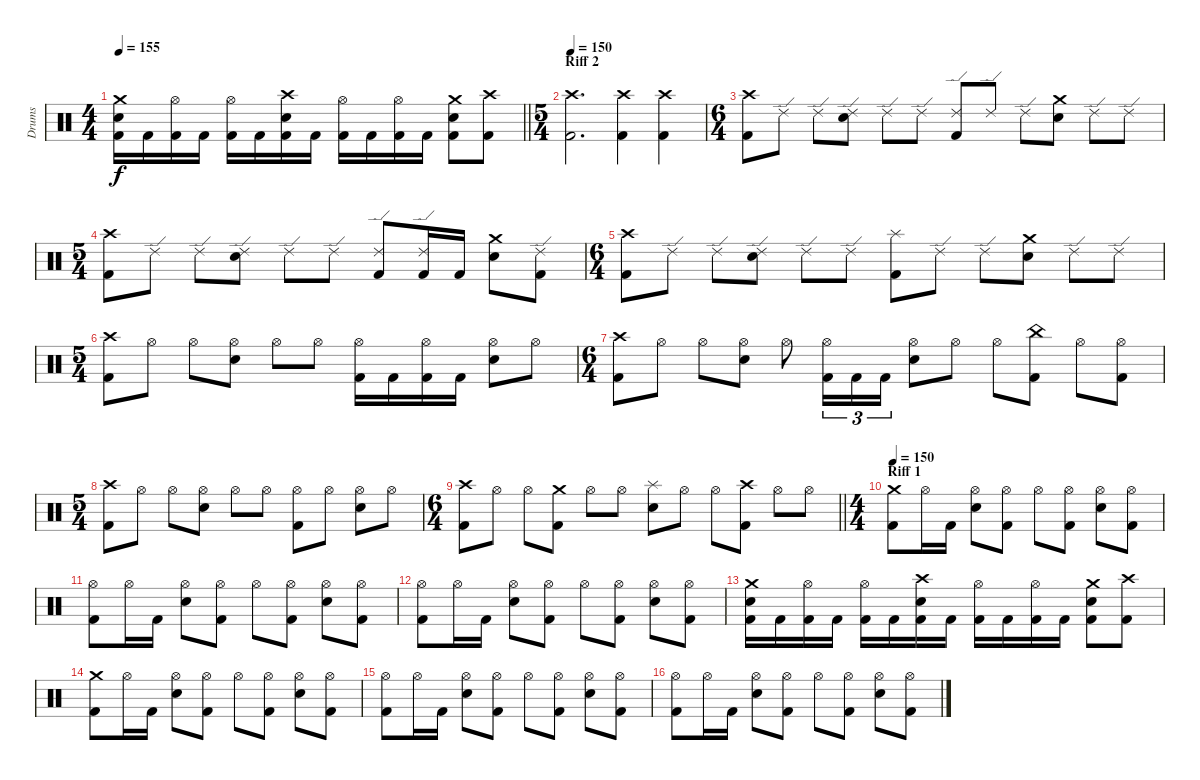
\track ("Drums" "Drums") {instrument percussion}
\staff {score}
\articulation defaults
\ts (4 4)
\tempo 155
\clef neutral
\barLineRight lightlight
\ks c
("Crash medium (hit)" "Electric Snare (hit)" "Kick (hit) 2").16{dy f} "Kick (hit) 2".16 ("Hi-Hat (open)" "Kick (hit) 2").16 "Kick (hit) 2".16 ("Hi-Hat (open)" "Kick (hit) 2").16 "Kick (hit) 2".16 ("Crash high (hit)" "Electric Snare (hit)" "Kick (hit) 2").16 "Kick (hit) 2".16 ("Hi-Hat (open)" "Kick (hit) 2").16 "Kick (hit) 2".16 ("Hi-Hat (open)" "Kick (hit) 2").16 "Kick (hit) 2".16 ("Crash medium (hit)" "Electric Snare (hit)" "Kick (hit) 2").8 ("Crash high (hit)" "Kick (hit) 2").8 |
\ts (5 4)
\section ("" "Riff 2")
\tempo 150
("Crash high (hit)" "Kick (hit) 2").2{d} ("Crash high (hit)" "Kick (hit) 2").4 ("Crash high (hit)" "Kick (hit) 2").4 |
\ts (6 4)
("Crash high (hit)" "Kick (hit) 2").8 "Ride (edge) 2".8 "Ride (edge) 2".8 ("Ride (edge) 2" "Electric Snare (hit)").8 "Ride (edge) 2".8 "Ride (edge) 2".8 ("Ride (edge) 2" "Kick (hit) 2").8 "Ride (edge) 2".8 "Ride (edge) 2".8 ("Crash medium (hit)" "Electric Snare (hit)").8 "Ride (edge) 2".8 "Ride (edge) 2".8 |
\ts (5 4)
("Crash high (hit)" "Kick (hit) 2").8 "Ride (edge) 2".8 "Ride (edge) 2".8 ("Ride (edge) 2" "Electric Snare (hit)").8 "Ride (edge) 2".8 "Ride (edge) 2".8 ("Ride (edge) 2" "Kick (hit) 2").8 ("Ride (edge) 2" "Kick (hit) 2").16 "Kick (hit) 2".16 ("Crash medium (hit)" "Electric Snare (hit)").8 ("Ride (edge) 2" "Kick (hit) 2").8 |
\ts (6 4)
("Crash high (hit)" "Kick (hit) 2").8 "Ride (edge) 2".8 "Ride (edge) 2".8 ("Ride (edge) 2" "Electric Snare (hit)").8 "Ride (edge) 2".8 "Ride (edge) 2".8 ("Splash (hit)" "Kick (hit) 2").8 "Ride (edge) 2".8 "Ride (edge) 2".8 ("Crash medium (hit)" "Electric Snare (hit)").8 "Ride (edge) 2".8 "Ride (edge) 2".8 |
\ts (5 4)
("Crash high (hit)" "Kick (hit) 2").8 "Hi-Hat (open)".8 "Hi-Hat (open)".8 ("Hi-Hat (open)" "Electric Snare (hit)").8 "Hi-Hat (open)".8 "Hi-Hat (open)".8 ("Hi-Hat (open)" "Kick (hit) 2").16 "Kick (hit) 2".16 ("Hi-Hat (open)" "Kick (hit) 2").16 "Kick (hit) 2".16 ("Hi-Hat (open)" "Electric Snare (hit)").8 "Hi-Hat (open)".8 |
\ts (6 4)
("Crash high (hit)" "Kick (hit) 2").8 "Hi-Hat (open)".8 "Hi-Hat (open)".8 ("Hi-Hat (open)" "Electric Snare (hit)").8 "Hi-Hat (open)".8 ("Hi-Hat (open)" "Kick (hit) 2").16{tu (3 2)} "Kick (hit) 2".16{tu (3 2)} "Kick (hit) 2".16{tu (3 2)} ("Hi-Hat (open)" "Electric Snare (hit)").8 "Hi-Hat (open)".8 "Hi-Hat (open)".8 ("China (hit)" "Kick (hit) 2").8 "Hi-Hat (open)".8 ("Hi-Hat (open)" "Kick (hit) 2").8 |
\ts (5 4)
("Crash high (hit)" "Kick (hit) 2").8 "Hi-Hat (open)".8 "Hi-Hat (open)".8 ("Hi-Hat (open)" "Electric Snare (hit)").8 "Hi-Hat (open)".8 "Hi-Hat (open)".8 ("Hi-Hat (open)" "Kick (hit) 2").8 "Hi-Hat (open)".8 ("Hi-Hat (open)" "Electric Snare (hit)").8 "Hi-Hat (open)".8 |
\ts (6 4)
\barLineRight lightlight
("Crash high (hit)" "Kick (hit) 2").8 "Hi-Hat (open)".8 "Hi-Hat (open)".8 ("Crash medium (hit)" "Kick (hit) 2").8 "Hi-Hat (open)".8 "Hi-Hat (open)".8 ("Splash (hit)" "Electric Snare (hit)").8 "Hi-Hat (open)".8 "Hi-Hat (open)".8 ("Crash high (hit)" "Kick (hit) 2").8 "Hi-Hat (open)".8 "Hi-Hat (open)".8 |
\ts (4 4)
\section ("" "Riff 1")
\tempo 150
("Crash medium (hit)" "Kick (hit) 2").8 "Hi-Hat (open)".16 "Kick (hit) 2".16 ("Hi-Hat (open)" "Electric Snare (hit)").8 ("Hi-Hat (open)" "Kick (hit) 2").8 "Hi-Hat (open)".8 ("Hi-Hat (open)" "Kick (hit) 2").8 ("Hi-Hat (open)" "Electric Snare (hit)").8 ("Hi-Hat (open)" "Kick (hit) 2").8 |
("Hi-Hat (open)" "Kick (hit) 2").8 "Hi-Hat (open)".16 "Kick (hit) 2".16 ("Hi-Hat (open)" "Electric Snare (hit)").8 ("Hi-Hat (open)" "Kick (hit) 2").8 "Hi-Hat (open)".8 ("Hi-Hat (open)" "Kick (hit) 2").8 ("Hi-Hat (open)" "Electric Snare (hit)").8 ("Hi-Hat (open)" "Kick (hit) 2").8 |
("Hi-Hat (open)" "Kick (hit) 2").8 "Hi-Hat (open)".16 "Kick (hit) 2".16 ("Hi-Hat (open)" "Electric Snare (hit)").8 ("Hi-Hat (open)" "Kick (hit) 2").8 "Hi-Hat (open)".8 ("Hi-Hat (open)" "Kick (hit) 2").8 ("Hi-Hat (open)" "Electric Snare (hit)").8 ("Hi-Hat (open)" "Kick (hit) 2").8 |
("Crash medium (hit)" "Electric Snare (hit)" "Kick (hit) 2").16 "Kick (hit) 2".16 ("Hi-Hat (open)" "Kick (hit) 2").16 "Kick (hit) 2".16 ("Hi-Hat (open)" "Kick (hit) 2").16 "Kick (hit) 2".16 ("Crash high (hit)" "Electric Snare (hit)" "Kick (hit) 2").16 "Kick (hit) 2".16 ("Hi-Hat (open)" "Kick (hit) 2").16 "Kick (hit) 2".16 ("Hi-Hat (open)" "Kick (hit) 2").16 "Kick (hit) 2".16 ("Crash medium (hit)" "Electric Snare (hit)" "Kick (hit) 2").8 ("Crash high (hit)" "Kick (hit) 2").8 |
("Crash medium (hit)" "Kick (hit) 2").8 "Hi-Hat (open)".16 "Kick (hit) 2".16 ("Hi-Hat (open)" "Electric Snare (hit)").8 ("Hi-Hat (open)" "Kick (hit) 2").8 "Hi-Hat (open)".8 ("Hi-Hat (open)" "Kick (hit) 2").8 ("Hi-Hat (open)" "Electric Snare (hit)").8 ("Hi-Hat (open)" "Kick (hit) 2").8 |
("Hi-Hat (open)" "Kick (hit) 2").8 "Hi-Hat (open)".16 "Kick (hit) 2".16 ("Hi-Hat (open)" "Electric Snare (hit)").8 ("Hi-Hat (open)" "Kick (hit) 2").8 "Hi-Hat (open)".8 ("Hi-Hat (open)" "Kick (hit) 2").8 ("Hi-Hat (open)" "Electric Snare (hit)").8 ("Hi-Hat (open)" "Kick (hit) 2").8 |
("Hi-Hat (open)" "Kick (hit) 2").8 "Hi-Hat (open)".16 "Kick (hit) 2".16 ("Hi-Hat (open)" "Electric Snare (hit)").8 ("Hi-Hat (open)" "Kick (hit) 2").8 "Hi-Hat (open)".8 ("Hi-Hat (open)" "Kick (hit) 2").8 ("Hi-Hat (open)" "Electric Snare (hit)").8 ("Hi-Hat (open)" "Kick (hit) 2").8
